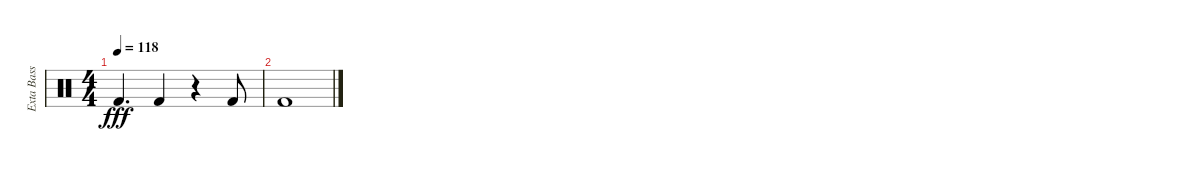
\track ("Exta Bass Boost" "Exta Bass ") {instrument percussion}
\staff {score}
\articulation defaults
\ts (4 4)
\tempo 118
\clef neutral
\ks c "Kick (hit) 2".4{d dy fff} "Kick (hit) 2".4
r.4 "Kick (hit) 2".8 |
"Kick (hit) 2".1
